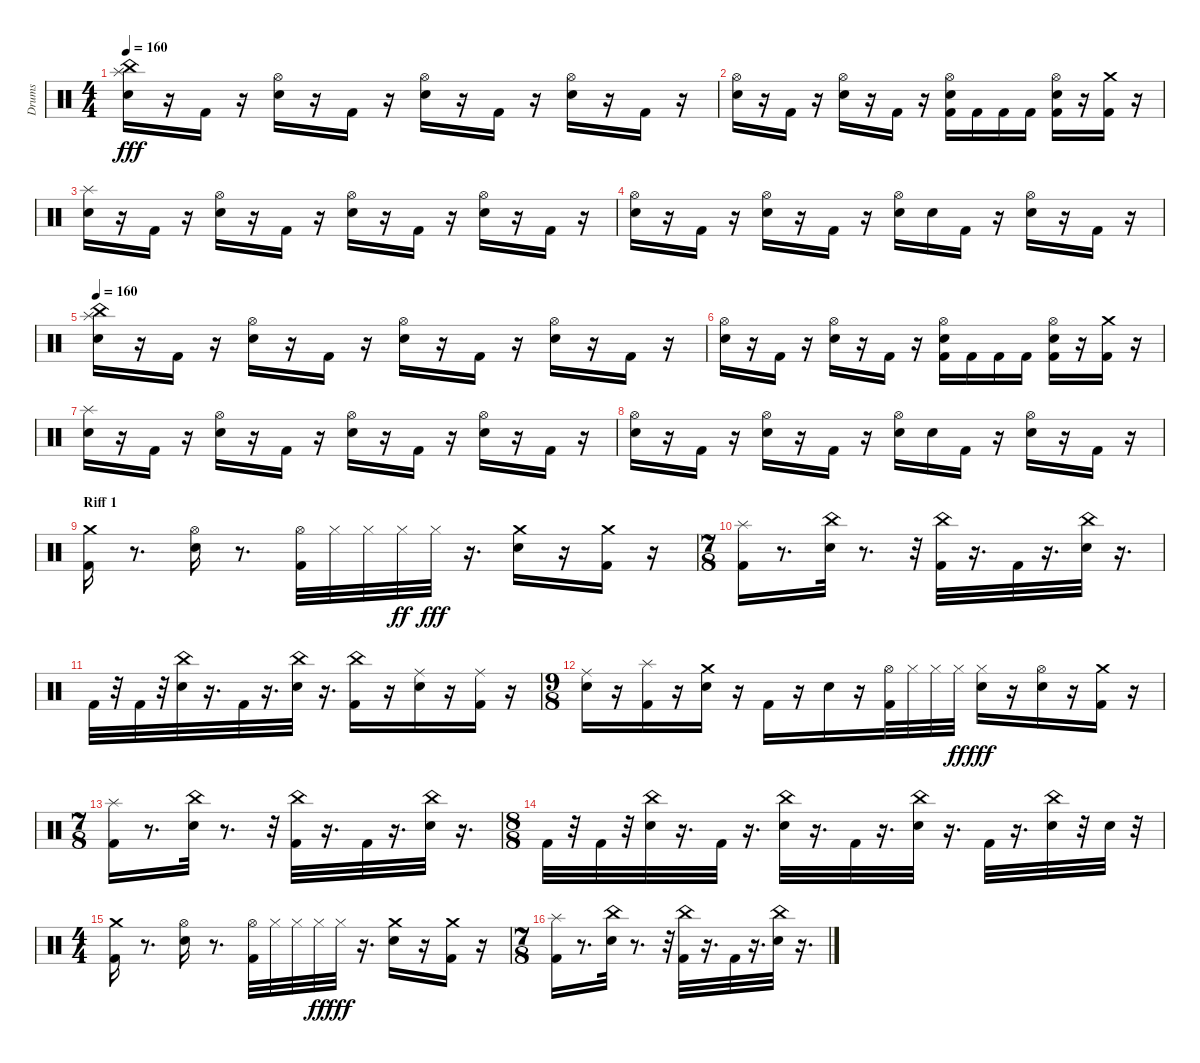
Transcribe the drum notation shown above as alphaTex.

\track ("Drums" "Drums") {instrument percussion}
\staff {score}
\articulation defaults
\ts (4 4)
\tempo 160
\clef neutral
\ks c
("Snare (hit) 2" "Splash (hit)" "China (hit)").16{dy fff} r.16 "Kick (hit) 2".16 r.16 ("Snare (hit) 2" "Hi-Hat (open)").16 r.16 "Kick (hit) 2".16 r.16 ("Snare (hit) 2" "Hi-Hat (open)").16 r.16 "Kick (hit) 2".16 r.16 ("Snare (hit) 2" "Hi-Hat (open)").16 r.16 "Kick (hit) 2".16 r.16 |
("Snare (hit) 2" "Hi-Hat (open)").16 r.16 "Kick (hit) 2".16 r.16 ("Snare (hit) 2" "Hi-Hat (open)").16 r.16 "Kick (hit) 2".16 r.16 ("Kick (hit) 2" "Snare (hit) 2" "Hi-Hat (open)").16 "Kick (hit) 2".16 "Kick (hit) 2".16 "Kick (hit) 2".16 ("Kick (hit) 2" "Snare (hit) 2" "Hi-Hat (open)").16 r.16 ("Kick (hit) 2" "Crash medium (hit)").16 r.16 |
("Snare (hit) 2" "Splash (hit)").16 r.16 "Kick (hit) 2".16 r.16 ("Snare (hit) 2" "Hi-Hat (open)").16 r.16 "Kick (hit) 2".16 r.16 ("Snare (hit) 2" "Hi-Hat (open)").16 r.16 "Kick (hit) 2".16 r.16 ("Snare (hit) 2" "Hi-Hat (open)").16 r.16 "Kick (hit) 2".16 r.16 |
("Snare (hit) 2" "Hi-Hat (open)").16 r.16 "Kick (hit) 2".16 r.16 ("Snare (hit) 2" "Hi-Hat (open)").16 r.16 "Kick (hit) 2".16 r.16 ("Snare (hit) 2" "Hi-Hat (open)").16 "Snare (hit) 2".16 "Kick (hit) 2".16 r.16 ("Snare (hit) 2" "Hi-Hat (open)").16 r.16 "Kick (hit) 2".16 r.16 |
\tempo 160
("Snare (hit) 2" "Splash (hit)" "China (hit)").16 r.16 "Kick (hit) 2".16 r.16 ("Snare (hit) 2" "Hi-Hat (open)").16 r.16 "Kick (hit) 2".16 r.16 ("Snare (hit) 2" "Hi-Hat (open)").16 r.16 "Kick (hit) 2".16 r.16 ("Snare (hit) 2" "Hi-Hat (open)").16 r.16 "Kick (hit) 2".16 r.16 |
("Snare (hit) 2" "Hi-Hat (open)").16 r.16 "Kick (hit) 2".16 r.16 ("Snare (hit) 2" "Hi-Hat (open)").16 r.16 "Kick (hit) 2".16 r.16 ("Kick (hit) 2" "Snare (hit) 2" "Hi-Hat (open)").16 "Kick (hit) 2".16 "Kick (hit) 2".16 "Kick (hit) 2".16 ("Kick (hit) 2" "Snare (hit) 2" "Hi-Hat (open)").16 r.16 ("Kick (hit) 2" "Crash medium (hit)").16 r.16 |
("Snare (hit) 2" "Splash (hit)").16 r.16 "Kick (hit) 2".16 r.16 ("Snare (hit) 2" "Hi-Hat (open)").16 r.16 "Kick (hit) 2".16 r.16 ("Snare (hit) 2" "Hi-Hat (open)").16 r.16 "Kick (hit) 2".16 r.16 ("Snare (hit) 2" "Hi-Hat (open)").16 r.16 "Kick (hit) 2".16 r.16 |
("Snare (hit) 2" "Hi-Hat (open)").16 r.16 "Kick (hit) 2".16 r.16 ("Snare (hit) 2" "Hi-Hat (open)").16 r.16 "Kick (hit) 2".16 r.16 ("Snare (hit) 2" "Hi-Hat (open)").16 "Snare (hit) 2".16 "Kick (hit) 2".16 r.16 ("Snare (hit) 2" "Hi-Hat (open)").16 r.16 "Kick (hit) 2".16 r.16 |
\section ("" "Riff 1")
("Kick (hit) 2" "Crash medium (hit)").16 r.8{d} ("Snare (hit) 2" "Hi-Hat (open)").16 r.8{d} ("Kick (hit) 2" "Hi-Hat (open)").32 "Hi-Hat (closed)".32 "Hi-Hat (closed)".32 "Hi-Hat (closed)".32{dy ff} "Hi-Hat (closed)".32{dy fff} r.16{d} ("Snare (hit) 2" "Crash medium (hit)").16 r.16 ("Kick (hit) 2" "Crash medium (hit)").16 r.16 |
\ts (7 8)
("Kick (hit) 2" "Splash (hit)").16 r.8{d} ("Snare (hit) 2" "China (hit)").32 r.8{d} r.32 ("Kick (hit) 2" "China (hit)").32 r.16{d} "Kick (hit) 2".32 r.16{d} ("Snare (hit) 2" "China (hit)").32 r.16{d} |
"Kick (hit) 2".32 r.32 "Kick (hit) 2".32 r.32 ("Snare (hit) 2" "China (hit)").32 r.16{d} "Kick (hit) 2".32 r.16{d} ("Snare (hit) 2" "China (hit)").32 r.16{d} ("Kick (hit) 2" "China (hit)").16 r.16 ("Snare (hit) 2" "Ride (middle)").16 r.16 ("Kick (hit) 2" "Ride (middle)").16 r.16 |
\ts (9 8)
("Snare (hit) 2" "Ride (middle)").16 r.16 ("Kick (hit) 2" "Splash (hit)").16 r.16 ("Snare (hit) 2" "Crash medium (hit)").16 r.16 "Kick (hit) 2".16 r.16 "Snare (hit) 2".16 r.16 ("Kick (hit) 2" "Hi-Hat (open)").32 "Hi-Hat (closed)".32 "Hi-Hat (closed)".32 "Hi-Hat (closed)".32{dy ff} ("Snare (hit) 2" "Hi-Hat (closed)").16{dy fff} r.16 ("Snare (hit) 2" "Hi-Hat (open)").16 r.16 ("Kick (hit) 2" "Crash medium (hit)").16 r.16 |
\ts (7 8)
("Kick (hit) 2" "Splash (hit)").16 r.8{d} ("Snare (hit) 2" "China (hit)").32 r.8{d} r.32 ("Kick (hit) 2" "China (hit)").32 r.16{d} "Kick (hit) 2".32 r.16{d} ("Snare (hit) 2" "China (hit)").32 r.16{d} |
\ts (8 8)
"Kick (hit) 2".32 r.32 "Kick (hit) 2".32 r.32 ("Snare (hit) 2" "China (hit)").32 r.16{d} "Kick (hit) 2".32 r.16{d} ("Snare (hit) 2" "China (hit)").32 r.16{d} "Kick (hit) 2".32 r.16{d} ("Snare (hit) 2" "China (hit)").32 r.16{d} "Kick (hit) 2".32 r.16{d} ("Snare (hit) 2" "China (hit)").32 r.32 "Snare (hit) 2".32 r.32 |
\ts (4 4)
("Kick (hit) 2" "Crash medium (hit)").16 r.8{d} ("Snare (hit) 2" "Hi-Hat (open)").16 r.8{d} ("Kick (hit) 2" "Hi-Hat (open)").32 "Hi-Hat (closed)".32 "Hi-Hat (closed)".32 "Hi-Hat (closed)".32{dy ff} "Hi-Hat (closed)".32{dy fff} r.16{d} ("Snare (hit) 2" "Crash medium (hit)").16 r.16 ("Kick (hit) 2" "Crash medium (hit)").16 r.16 |
\ts (7 8)
("Kick (hit) 2" "Splash (hit)").16 r.8{d} ("Snare (hit) 2" "China (hit)").32 r.8{d} r.32 ("Kick (hit) 2" "China (hit)").32 r.16{d} "Kick (hit) 2".32 r.16{d} ("Snare (hit) 2" "China (hit)").32 r.16{d}
